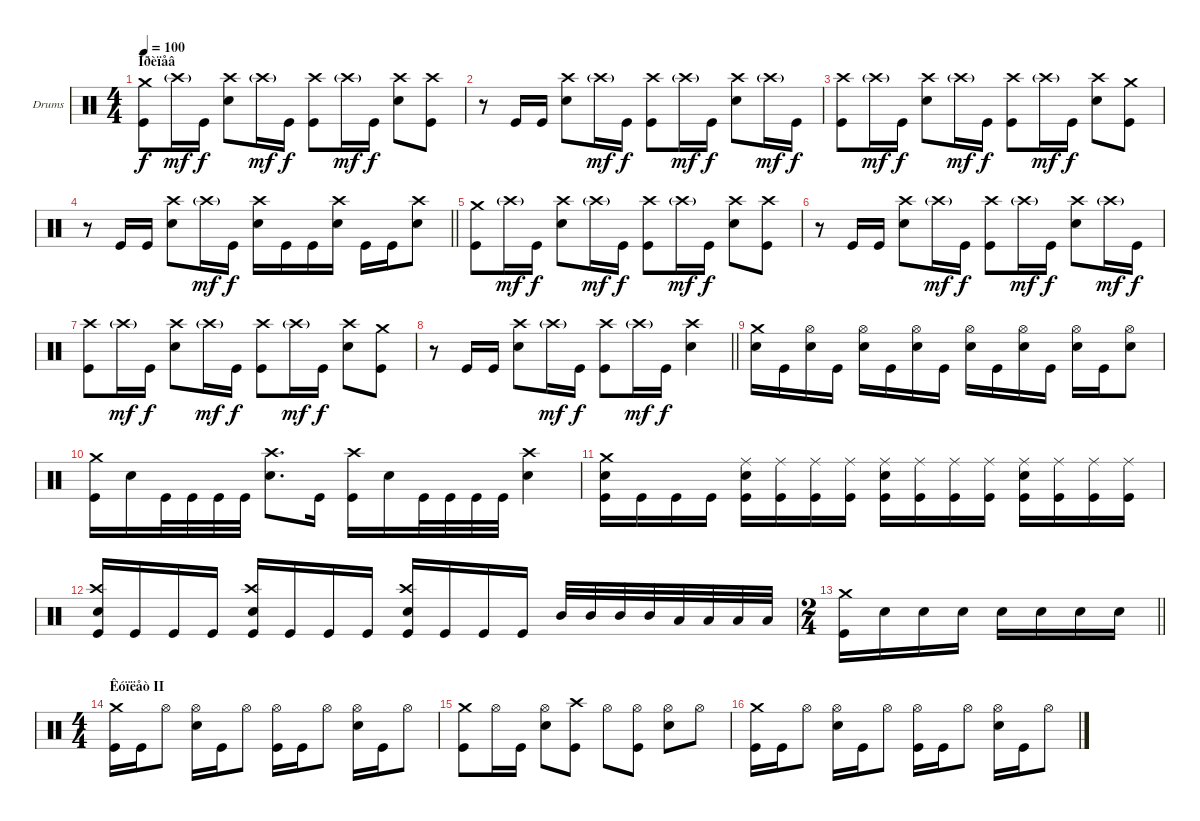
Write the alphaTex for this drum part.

\bracketExtendMode groupsimilarinstruments
\firstSystemTrackNameOrientation horizontal
\otherSystemsTrackNameOrientation horizontal
\track ("Drumkit" "Drums") {instrument percussion}
\staff {score}
\articulation defaults
\ts (4 4)
\section ("" "Ïðèïåâ")
\tempo 100
\clef neutral
\ks c
("Crash medium (hit)" "Kick (hit)").8{dy f} "Crash high (hit)"{g}.16{dy mf} "Kick (hit)".16{dy f} ("Crash high (hit)" "Snare (hit) 2").8 "Crash high (hit)"{g}.16{dy mf} "Kick (hit)".16{dy f} ("Crash high (hit)" "Kick (hit)").8 "Crash high (hit)"{g}.16{dy mf} "Kick (hit)".16{dy f} ("Crash high (hit)" "Snare (hit) 2").8 ("Crash high (hit)" "Kick (hit)").8 |
r.8 "Kick (hit)".16 "Kick (hit)".16 ("Crash high (hit)" "Snare (hit) 2").8 "Crash high (hit)"{g}.16{dy mf} "Kick (hit)".16{dy f} ("Crash high (hit)" "Kick (hit)").8 "Crash high (hit)"{g}.16{dy mf} "Kick (hit)".16{dy f} ("Crash high (hit)" "Snare (hit) 2").8 "Crash high (hit)"{g}.16{dy mf} "Kick (hit)".16{dy f} |
("Crash high (hit)" "Kick (hit)").8 "Crash high (hit)"{g}.16{dy mf} "Kick (hit)".16{dy f} ("Crash high (hit)" "Snare (hit) 2").8 "Crash high (hit)"{g}.16{dy mf} "Kick (hit)".16{dy f} ("Crash high (hit)" "Kick (hit)").8 "Crash high (hit)"{g}.16{dy mf} "Kick (hit)".16{dy f} ("Crash high (hit)" "Snare (hit) 2").8 ("Crash medium (hit)" "Kick (hit)").8 |
\barLineRight lightlight
r.8 "Kick (hit)".16 "Kick (hit)".16 ("Crash high (hit)" "Snare (hit) 2").8 "Crash high (hit)"{g}.16{dy mf} "Kick (hit)".16{dy f} ("Crash high (hit)" "Snare (hit) 2").16 "Kick (hit)".16 "Kick (hit)".16 ("Crash high (hit)" "Snare (hit) 2").16 "Kick (hit)".16 "Kick (hit)".16 ("Crash high (hit)" "Snare (hit) 2").8 |
("Crash medium (hit)" "Kick (hit)").8 "Crash high (hit)"{g}.16{dy mf} "Kick (hit)".16{dy f} ("Crash high (hit)" "Snare (hit) 2").8 "Crash high (hit)"{g}.16{dy mf} "Kick (hit)".16{dy f} ("Crash high (hit)" "Kick (hit)").8 "Crash high (hit)"{g}.16{dy mf} "Kick (hit)".16{dy f} ("Crash high (hit)" "Snare (hit) 2").8 ("Crash high (hit)" "Kick (hit)").8 |
r.8 "Kick (hit)".16 "Kick (hit)".16 ("Crash high (hit)" "Snare (hit) 2").8 "Crash high (hit)"{g}.16{dy mf} "Kick (hit)".16{dy f} ("Crash high (hit)" "Kick (hit)").8 "Crash high (hit)"{g}.16{dy mf} "Kick (hit)".16{dy f} ("Crash high (hit)" "Snare (hit) 2").8 "Crash high (hit)"{g}.16{dy mf} "Kick (hit)".16{dy f} |
("Crash high (hit)" "Kick (hit)").8 "Crash high (hit)"{g}.16{dy mf} "Kick (hit)".16{dy f} ("Crash high (hit)" "Snare (hit) 2").8 "Crash high (hit)"{g}.16{dy mf} "Kick (hit)".16{dy f} ("Crash high (hit)" "Kick (hit)").8 "Crash high (hit)"{g}.16{dy mf} "Kick (hit)".16{dy f} ("Crash high (hit)" "Snare (hit) 2").8 ("Crash medium (hit)" "Kick (hit)").8 |
\barLineRight lightlight
r.8 "Kick (hit)".16 "Kick (hit)".16 ("Crash high (hit)" "Snare (hit) 2").8 "Crash high (hit)"{g}.16{dy mf} "Kick (hit)".16{dy f} ("Crash high (hit)" "Kick (hit)").8 "Crash high (hit)"{g}.16{dy mf} "Kick (hit)".16{dy f} ("Crash high (hit)" "Snare (hit) 2").4 |
("Crash medium (hit)" "Snare (hit) 2").16 "Kick (hit)".16 ("Hi-Hat (open)" "Snare (hit) 2").16 "Kick (hit)".16 ("Hi-Hat (open)" "Snare (hit) 2").16 "Kick (hit)".16 ("Hi-Hat (open)" "Snare (hit) 2").16 "Kick (hit)".16 ("Hi-Hat (open)" "Snare (hit) 2").16 "Kick (hit)".16 ("Hi-Hat (open)" "Snare (hit) 2").16 "Kick (hit)".16 ("Hi-Hat (open)" "Snare (hit) 2").16 "Kick (hit)".16 ("Hi-Hat (open)" "Snare (hit) 2").8 |
("Crash medium (hit)" "Kick (hit)").16 "Snare (hit) 2".16 "Kick (hit)".32 "Kick (hit)".32 "Kick (hit)".32 "Kick (hit)".32 ("Crash high (hit)" "Snare (hit) 2").8{d} "Kick (hit)".16 ("Crash high (hit)" "Kick (hit)").16 "Snare (hit) 2".16 "Kick (hit)".32 "Kick (hit)".32 "Kick (hit)".32 "Kick (hit)".32 ("Crash high (hit)" "Snare (hit) 2").4 |
("Crash medium (hit)" "Snare (hit) 2" "Kick (hit)").16 "Kick (hit)".16 "Kick (hit)".16 "Kick (hit)".16 ("Ride (middle)" "Snare (hit) 2" "Kick (hit)").16 ("Ride (middle)" "Kick (hit)").16 ("Ride (middle)" "Kick (hit)").16 ("Ride (middle)" "Kick (hit)").16 ("Ride (middle)" "Snare (hit) 2" "Kick (hit)").16 ("Ride (middle)" "Kick (hit)").16 ("Ride (middle)" "Kick (hit)").16 ("Ride (middle)" "Kick (hit)").16 ("Ride (middle)" "Snare (hit) 2" "Kick (hit)").16 ("Ride (middle)" "Kick (hit)").16 ("Ride (middle)" "Kick (hit)").16 ("Ride (middle)" "Kick (hit)").16 |
("Crash high (hit)" "Snare (hit) 2" "Kick (hit)").16 "Kick (hit)".16 "Kick (hit)".16 "Kick (hit)".16 ("Crash high (hit)" "Snare (hit) 2" "Kick (hit)").16 "Kick (hit)".16 "Kick (hit)".16 "Kick (hit)".16 ("Crash high (hit)" "Snare (hit) 2" "Kick (hit)").16 "Kick (hit)".16 "Kick (hit)".16 "Kick (hit)".16 "Mid Tom (hit)".32 "Mid Tom (hit)".32 "Mid Tom (hit)".32 "Mid Tom (hit)".32 "Low Tom (hit)".32 "Low Tom (hit)".32 "Low Tom (hit)".32 "Low Tom (hit)".32 |
\ts (2 4)
\beaming (8 2 2)
\barLineRight lightlight
("Crash medium (hit)" "Kick (hit)").16 "Snare (hit) 2".16 "Snare (hit) 2".16 "Snare (hit) 2".16 "Snare (hit) 2".16 "Snare (hit) 2".16 "Snare (hit) 2".16 "Snare (hit) 2".16 |
\ts (4 4)
\beaming (8 2 2 2 2)
\section ("" "Êóïëåò II")
("Crash medium (hit)" "Kick (hit)").16 "Kick (hit)".16 "Hi-Hat (open)".8 ("Hi-Hat (open)" "Snare (hit) 2").16 "Kick (hit)".16 "Hi-Hat (open)".8 ("Hi-Hat (open)" "Kick (hit)").16 "Kick (hit)".16 "Hi-Hat (open)".8 ("Hi-Hat (open)" "Snare (hit) 2").16 "Kick (hit)".16 "Hi-Hat (open)".8 |
("Crash medium (hit)" "Kick (hit)").8 "Hi-Hat (open)".16 "Kick (hit)".16 ("Hi-Hat (open)" "Snare (hit) 2").8 ("Crash high (hit)" "Kick (hit)").8 "Hi-Hat (open)".8 ("Hi-Hat (open)" "Kick (hit)").8 ("Hi-Hat (open)" "Snare (hit) 2").8 "Hi-Hat (open)".8 |
("Crash medium (hit)" "Kick (hit)").16 "Kick (hit)".16 "Hi-Hat (open)".8 ("Hi-Hat (open)" "Snare (hit) 2").16 "Kick (hit)".16 "Hi-Hat (open)".8 ("Hi-Hat (open)" "Kick (hit)").16 "Kick (hit)".16 "Hi-Hat (open)".8 ("Hi-Hat (open)" "Snare (hit) 2").16 "Kick (hit)".16 "Hi-Hat (open)".8
